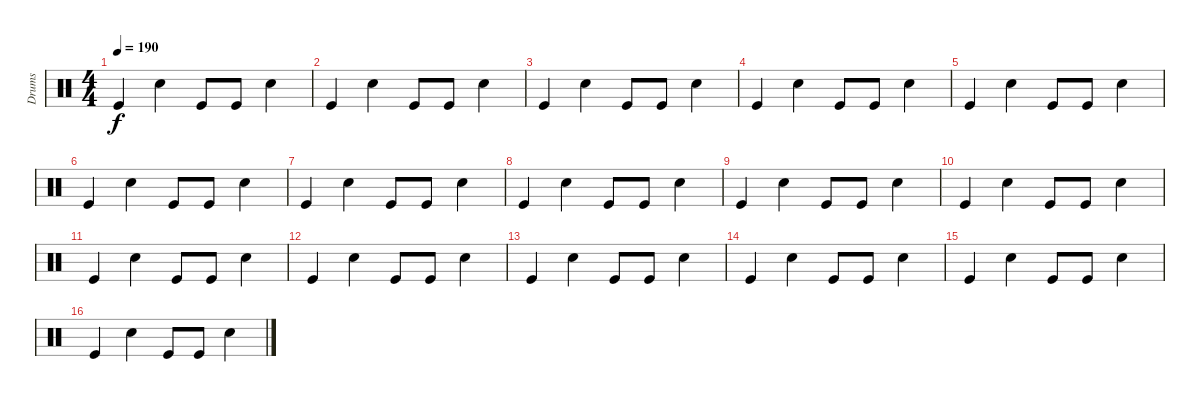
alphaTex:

\track ("Drums" "Drums") {instrument percussion}
\staff {score}
\articulation defaults
\ts (4 4)
\tempo 190
\clef neutral
\ks c "Kick (hit)".4{dy f} "Snare (hit) 2".4 "Kick (hit)".8 "Kick (hit)".8 "Snare (hit) 2".4
|
"Kick (hit)".4 "Snare (hit) 2".4 "Kick (hit)".8 "Kick (hit)".8 "Snare (hit) 2".4 |
"Kick (hit)".4 "Snare (hit) 2".4 "Kick (hit)".8 "Kick (hit)".8 "Snare (hit) 2".4 |
"Kick (hit)".4 "Snare (hit) 2".4 "Kick (hit)".8 "Kick (hit)".8 "Snare (hit) 2".4 |
"Kick (hit)".4 "Snare (hit) 2".4 "Kick (hit)".8 "Kick (hit)".8 "Snare (hit) 2".4 |
"Kick (hit)".4 "Snare (hit) 2".4 "Kick (hit)".8 "Kick (hit)".8 "Snare (hit) 2".4 |
"Kick (hit)".4 "Snare (hit) 2".4 "Kick (hit)".8 "Kick (hit)".8 "Snare (hit) 2".4 |
"Kick (hit)".4 "Snare (hit) 2".4 "Kick (hit)".8 "Kick (hit)".8 "Snare (hit) 2".4 |
"Kick (hit)".4 "Snare (hit) 2".4 "Kick (hit)".8 "Kick (hit)".8 "Snare (hit) 2".4 |
"Kick (hit)".4 "Snare (hit) 2".4 "Kick (hit)".8 "Kick (hit)".8 "Snare (hit) 2".4 |
"Kick (hit)".4 "Snare (hit) 2".4 "Kick (hit)".8 "Kick (hit)".8 "Snare (hit) 2".4 |
"Kick (hit)".4 "Snare (hit) 2".4 "Kick (hit)".8 "Kick (hit)".8 "Snare (hit) 2".4 |
"Kick (hit)".4 "Snare (hit) 2".4 "Kick (hit)".8 "Kick (hit)".8 "Snare (hit) 2".4 |
"Kick (hit)".4 "Snare (hit) 2".4 "Kick (hit)".8 "Kick (hit)".8 "Snare (hit) 2".4 |
"Kick (hit)".4 "Snare (hit) 2".4 "Kick (hit)".8 "Kick (hit)".8 "Snare (hit) 2".4 |
"Kick (hit)".4 "Snare (hit) 2".4 "Kick (hit)".8 "Kick (hit)".8 "Snare (hit) 2".4
